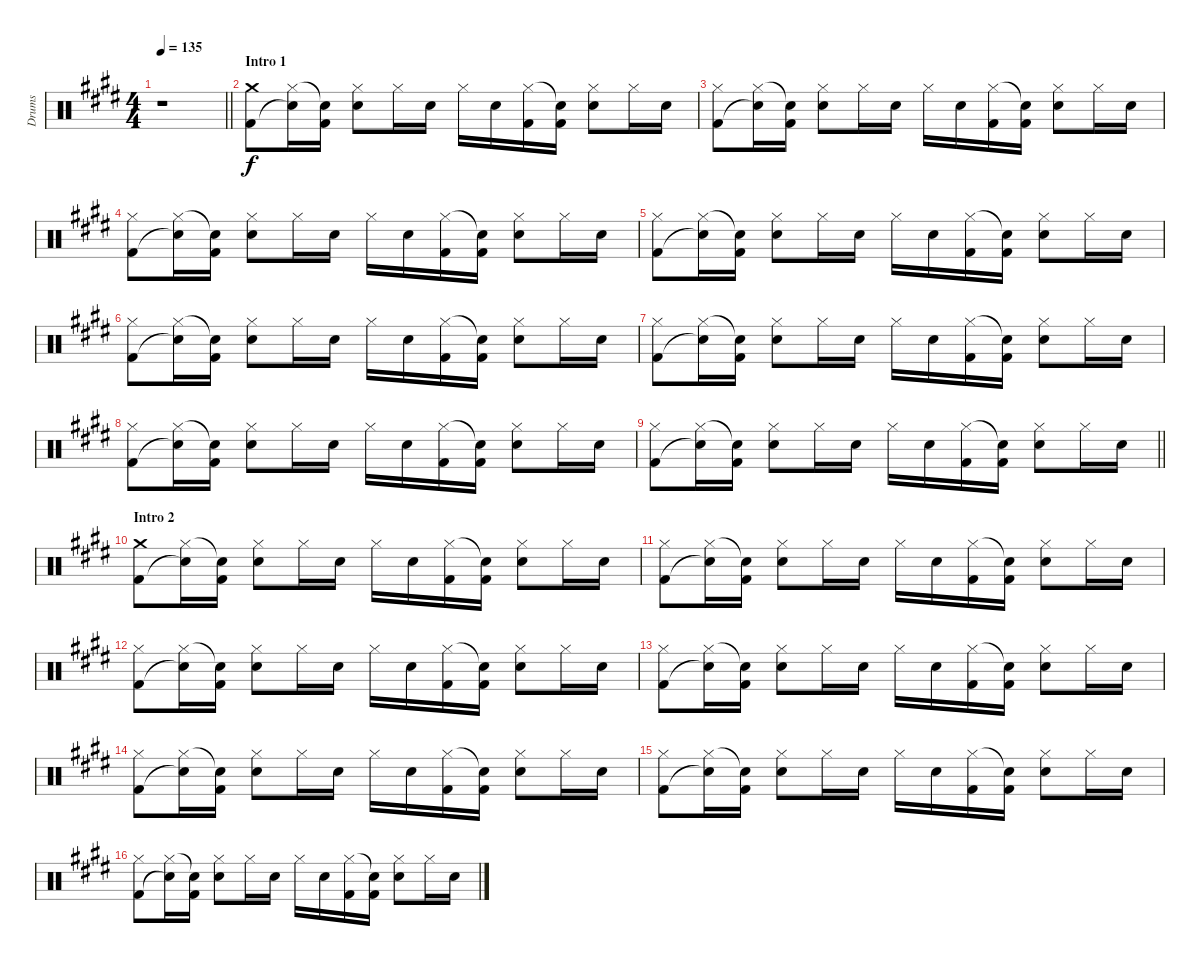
\track ("Drums" "Drums") {instrument percussion}
\staff {score}
\articulation defaults
\ts (4 4)
\tempo 135
\clef neutral
\barLineRight lightlight
\ks c#minor
r.1{dy f} |
\section ("" "Intro 1")
("Crash medium (hit)" "Kick (hit) 2").8 ("Hi-Hat (closed)" "Snare (hit)"{t}).16 ("Snare (hit)"{t} "Kick (hit) 2").16 ("Hi-Hat (closed)" "Electric Snare (hit)").8 "Hi-Hat (closed)".16 "Electric Snare (hit)".16 "Hi-Hat (closed)".16 "Electric Snare (hit)".16 ("Hi-Hat (closed)" "Kick (hit) 2").16 ("Snare (hit)"{t} "Kick (hit) 2").16 ("Hi-Hat (closed)" "Electric Snare (hit)").8 "Hi-Hat (closed)".16 "Electric Snare (hit)".16 |
("Hi-Hat (closed)" "Kick (hit) 2").8 ("Hi-Hat (closed)" "Snare (hit)"{t}).16 ("Snare (hit)"{t} "Kick (hit) 2").16 ("Hi-Hat (closed)" "Electric Snare (hit)").8 "Hi-Hat (closed)".16 "Electric Snare (hit)".16 "Hi-Hat (closed)".16 "Electric Snare (hit)".16 ("Hi-Hat (closed)" "Kick (hit) 2").16 ("Snare (hit)"{t} "Kick (hit) 2").16 ("Hi-Hat (closed)" "Electric Snare (hit)").8 "Hi-Hat (closed)".16 "Electric Snare (hit)".16 |
("Hi-Hat (closed)" "Kick (hit) 2").8 ("Hi-Hat (closed)" "Snare (hit)"{t}).16 ("Snare (hit)"{t} "Kick (hit) 2").16 ("Hi-Hat (closed)" "Electric Snare (hit)").8 "Hi-Hat (closed)".16 "Electric Snare (hit)".16 "Hi-Hat (closed)".16 "Electric Snare (hit)".16 ("Hi-Hat (closed)" "Kick (hit) 2").16 ("Snare (hit)"{t} "Kick (hit) 2").16 ("Hi-Hat (closed)" "Electric Snare (hit)").8 "Hi-Hat (closed)".16 "Electric Snare (hit)".16 |
("Hi-Hat (closed)" "Kick (hit) 2").8 ("Hi-Hat (closed)" "Snare (hit)"{t}).16 ("Snare (hit)"{t} "Kick (hit) 2").16 ("Hi-Hat (closed)" "Electric Snare (hit)").8 "Hi-Hat (closed)".16 "Electric Snare (hit)".16 "Hi-Hat (closed)".16 "Electric Snare (hit)".16 ("Hi-Hat (closed)" "Kick (hit) 2").16 ("Snare (hit)"{t} "Kick (hit) 2").16 ("Hi-Hat (closed)" "Electric Snare (hit)").8 "Hi-Hat (closed)".16 "Electric Snare (hit)".16 |
("Hi-Hat (closed)" "Kick (hit) 2").8 ("Hi-Hat (closed)" "Snare (hit)"{t}).16 ("Snare (hit)"{t} "Kick (hit) 2").16 ("Hi-Hat (closed)" "Electric Snare (hit)").8 "Hi-Hat (closed)".16 "Electric Snare (hit)".16 "Hi-Hat (closed)".16 "Electric Snare (hit)".16 ("Hi-Hat (closed)" "Kick (hit) 2").16 ("Snare (hit)"{t} "Kick (hit) 2").16 ("Hi-Hat (closed)" "Electric Snare (hit)").8 "Hi-Hat (closed)".16 "Electric Snare (hit)".16 |
("Hi-Hat (closed)" "Kick (hit) 2").8 ("Hi-Hat (closed)" "Snare (hit)"{t}).16 ("Snare (hit)"{t} "Kick (hit) 2").16 ("Hi-Hat (closed)" "Electric Snare (hit)").8 "Hi-Hat (closed)".16 "Electric Snare (hit)".16 "Hi-Hat (closed)".16 "Electric Snare (hit)".16 ("Hi-Hat (closed)" "Kick (hit) 2").16 ("Snare (hit)"{t} "Kick (hit) 2").16 ("Hi-Hat (closed)" "Electric Snare (hit)").8 "Hi-Hat (closed)".16 "Electric Snare (hit)".16 |
("Hi-Hat (closed)" "Kick (hit) 2").8 ("Hi-Hat (closed)" "Snare (hit)"{t}).16 ("Snare (hit)"{t} "Kick (hit) 2").16 ("Hi-Hat (closed)" "Electric Snare (hit)").8 "Hi-Hat (closed)".16 "Electric Snare (hit)".16 "Hi-Hat (closed)".16 "Electric Snare (hit)".16 ("Hi-Hat (closed)" "Kick (hit) 2").16 ("Snare (hit)"{t} "Kick (hit) 2").16 ("Hi-Hat (closed)" "Electric Snare (hit)").8 "Hi-Hat (closed)".16 "Electric Snare (hit)".16 |
\barLineRight lightlight
("Hi-Hat (closed)" "Kick (hit) 2").8 ("Hi-Hat (closed)" "Snare (hit)"{t}).16 ("Snare (hit)"{t} "Kick (hit) 2").16 ("Hi-Hat (closed)" "Electric Snare (hit)").8 "Hi-Hat (closed)".16 "Electric Snare (hit)".16 "Hi-Hat (closed)".16 "Electric Snare (hit)".16 ("Hi-Hat (closed)" "Kick (hit) 2").16 ("Snare (hit)"{t} "Kick (hit) 2").16 ("Hi-Hat (closed)" "Electric Snare (hit)").8 "Hi-Hat (closed)".16 "Electric Snare (hit)".16 |
\section ("" "Intro 2")
("Crash medium (hit)" "Kick (hit) 2").8 ("Hi-Hat (closed)" "Snare (hit)"{t}).16 ("Snare (hit)"{t} "Kick (hit) 2").16 ("Hi-Hat (closed)" "Electric Snare (hit)").8 "Hi-Hat (closed)".16 "Electric Snare (hit)".16 "Hi-Hat (closed)".16 "Electric Snare (hit)".16 ("Hi-Hat (closed)" "Kick (hit) 2").16 ("Snare (hit)"{t} "Kick (hit) 2").16 ("Hi-Hat (closed)" "Electric Snare (hit)").8 "Hi-Hat (closed)".16 "Electric Snare (hit)".16 |
("Hi-Hat (closed)" "Kick (hit) 2").8 ("Hi-Hat (closed)" "Snare (hit)"{t}).16 ("Snare (hit)"{t} "Kick (hit) 2").16 ("Hi-Hat (closed)" "Electric Snare (hit)").8 "Hi-Hat (closed)".16 "Electric Snare (hit)".16 "Hi-Hat (closed)".16 "Electric Snare (hit)".16 ("Hi-Hat (closed)" "Kick (hit) 2").16 ("Snare (hit)"{t} "Kick (hit) 2").16 ("Hi-Hat (closed)" "Electric Snare (hit)").8 "Hi-Hat (closed)".16 "Electric Snare (hit)".16 |
("Hi-Hat (closed)" "Kick (hit) 2").8 ("Hi-Hat (closed)" "Snare (hit)"{t}).16 ("Snare (hit)"{t} "Kick (hit) 2").16 ("Hi-Hat (closed)" "Electric Snare (hit)").8 "Hi-Hat (closed)".16 "Electric Snare (hit)".16 "Hi-Hat (closed)".16 "Electric Snare (hit)".16 ("Hi-Hat (closed)" "Kick (hit) 2").16 ("Snare (hit)"{t} "Kick (hit) 2").16 ("Hi-Hat (closed)" "Electric Snare (hit)").8 "Hi-Hat (closed)".16 "Electric Snare (hit)".16 |
("Hi-Hat (closed)" "Kick (hit) 2").8 ("Hi-Hat (closed)" "Snare (hit)"{t}).16 ("Snare (hit)"{t} "Kick (hit) 2").16 ("Hi-Hat (closed)" "Electric Snare (hit)").8 "Hi-Hat (closed)".16 "Electric Snare (hit)".16 "Hi-Hat (closed)".16 "Electric Snare (hit)".16 ("Hi-Hat (closed)" "Kick (hit) 2").16 ("Snare (hit)"{t} "Kick (hit) 2").16 ("Hi-Hat (closed)" "Electric Snare (hit)").8 "Hi-Hat (closed)".16 "Electric Snare (hit)".16 |
("Hi-Hat (closed)" "Kick (hit) 2").8 ("Hi-Hat (closed)" "Snare (hit)"{t}).16 ("Snare (hit)"{t} "Kick (hit) 2").16 ("Hi-Hat (closed)" "Electric Snare (hit)").8 "Hi-Hat (closed)".16 "Electric Snare (hit)".16 "Hi-Hat (closed)".16 "Electric Snare (hit)".16 ("Hi-Hat (closed)" "Kick (hit) 2").16 ("Snare (hit)"{t} "Kick (hit) 2").16 ("Hi-Hat (closed)" "Electric Snare (hit)").8 "Hi-Hat (closed)".16 "Electric Snare (hit)".16 |
("Hi-Hat (closed)" "Kick (hit) 2").8 ("Hi-Hat (closed)" "Snare (hit)"{t}).16 ("Snare (hit)"{t} "Kick (hit) 2").16 ("Hi-Hat (closed)" "Electric Snare (hit)").8 "Hi-Hat (closed)".16 "Electric Snare (hit)".16 "Hi-Hat (closed)".16 "Electric Snare (hit)".16 ("Hi-Hat (closed)" "Kick (hit) 2").16 ("Snare (hit)"{t} "Kick (hit) 2").16 ("Hi-Hat (closed)" "Electric Snare (hit)").8 "Hi-Hat (closed)".16 "Electric Snare (hit)".16 |
("Hi-Hat (closed)" "Kick (hit) 2").8 ("Hi-Hat (closed)" "Snare (hit)"{t}).16 ("Snare (hit)"{t} "Kick (hit) 2").16 ("Hi-Hat (closed)" "Electric Snare (hit)").8 "Hi-Hat (closed)".16 "Electric Snare (hit)".16 "Hi-Hat (closed)".16 "Electric Snare (hit)".16 ("Hi-Hat (closed)" "Kick (hit) 2").16 ("Snare (hit)"{t} "Kick (hit) 2").16 ("Hi-Hat (closed)" "Electric Snare (hit)").8 "Hi-Hat (closed)".16 "Electric Snare (hit)".16
